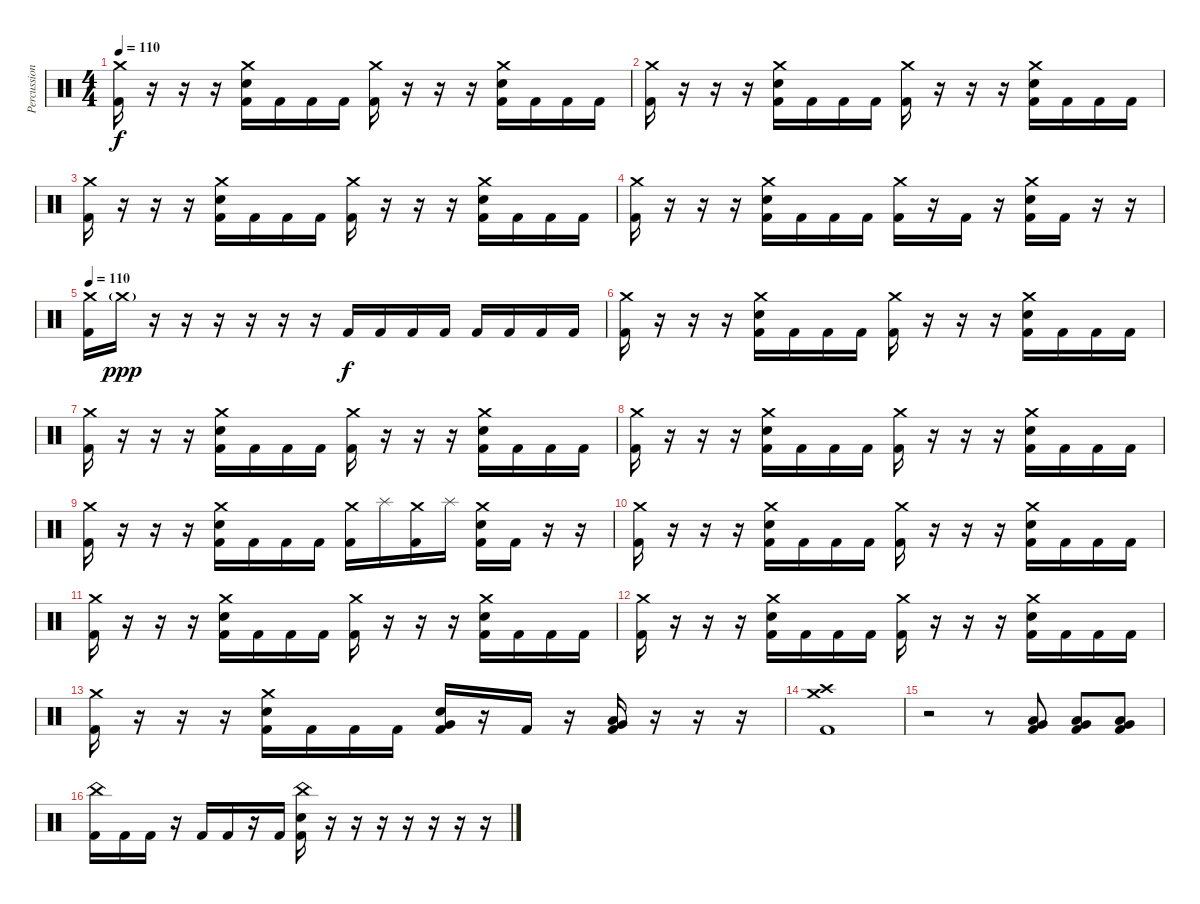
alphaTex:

\track ("Percussion" "Percussion") {instrument percussion}
\staff {score}
\articulation defaults
\ts (4 4)
\tempo 110
\clef neutral
\ks c
("Crash medium (hit)" "Kick (hit) 2").16{dy f} r.16 r.16 r.16 ("Crash medium (hit)" "Electric Snare (hit)" "Kick (hit) 2").16 "Kick (hit) 2".16 "Kick (hit) 2".16 "Kick (hit) 2".16 ("Crash medium (hit)" "Kick (hit) 2").16 r.16 r.16 r.16 ("Crash medium (hit)" "Electric Snare (hit)" "Kick (hit) 2").16 "Kick (hit) 2".16 "Kick (hit) 2".16 "Kick (hit) 2".16 |
("Crash medium (hit)" "Kick (hit) 2").16 r.16 r.16 r.16 ("Crash medium (hit)" "Electric Snare (hit)" "Kick (hit) 2").16 "Kick (hit) 2".16 "Kick (hit) 2".16 "Kick (hit) 2".16 ("Crash medium (hit)" "Kick (hit) 2").16 r.16 r.16 r.16 ("Crash medium (hit)" "Electric Snare (hit)" "Kick (hit) 2").16 "Kick (hit) 2".16 "Kick (hit) 2".16 "Kick (hit) 2".16 |
("Crash medium (hit)" "Kick (hit) 2").16 r.16 r.16 r.16 ("Crash medium (hit)" "Electric Snare (hit)" "Kick (hit) 2").16 "Kick (hit) 2".16 "Kick (hit) 2".16 "Kick (hit) 2".16 ("Crash medium (hit)" "Kick (hit) 2").16 r.16 r.16 r.16 ("Crash medium (hit)" "Electric Snare (hit)" "Kick (hit) 2").16 "Kick (hit) 2".16 "Kick (hit) 2".16 "Kick (hit) 2".16 |
("Crash medium (hit)" "Kick (hit) 2").16 r.16 r.16 r.16 ("Crash medium (hit)" "Electric Snare (hit)" "Kick (hit) 2").16 "Kick (hit) 2".16 "Kick (hit) 2".16 "Kick (hit) 2".16 ("Crash medium (hit)" "Kick (hit) 2").16 r.16 "Kick (hit) 2".16 r.16 ("Crash medium (hit)" "Electric Snare (hit)" "Kick (hit) 2").16 "Kick (hit) 2".16 r.16 r.16 |
\tempo 110
("Crash medium (hit)" "Kick (hit) 2").16 "Crash medium (hit)"{g}.16{dy ppp} r.16 r.16 r.16 r.16 r.16 r.16 "Kick (hit) 2".16{dy f} "Kick (hit) 2".16 "Kick (hit) 2".16 "Kick (hit) 2".16 "Kick (hit) 2".16 "Kick (hit) 2".16 "Kick (hit) 2".16 "Kick (hit) 2".16 |
("Crash medium (hit)" "Kick (hit) 2").16 r.16 r.16 r.16 ("Crash medium (hit)" "Electric Snare (hit)" "Kick (hit) 2").16 "Kick (hit) 2".16 "Kick (hit) 2".16 "Kick (hit) 2".16 ("Crash medium (hit)" "Kick (hit) 2").16 r.16 r.16 r.16 ("Crash medium (hit)" "Electric Snare (hit)" "Kick (hit) 2").16 "Kick (hit) 2".16 "Kick (hit) 2".16 "Kick (hit) 2".16 |
("Crash medium (hit)" "Kick (hit) 2").16 r.16 r.16 r.16 ("Crash medium (hit)" "Electric Snare (hit)" "Kick (hit) 2").16 "Kick (hit) 2".16 "Kick (hit) 2".16 "Kick (hit) 2".16 ("Crash medium (hit)" "Kick (hit) 2").16 r.16 r.16 r.16 ("Crash medium (hit)" "Electric Snare (hit)" "Kick (hit) 2").16 "Kick (hit) 2".16 "Kick (hit) 2".16 "Kick (hit) 2".16 |
("Crash medium (hit)" "Kick (hit) 2").16 r.16 r.16 r.16 ("Crash medium (hit)" "Electric Snare (hit)" "Kick (hit) 2").16 "Kick (hit) 2".16 "Kick (hit) 2".16 "Kick (hit) 2".16 ("Crash medium (hit)" "Kick (hit) 2").16 r.16 r.16 r.16 ("Crash medium (hit)" "Electric Snare (hit)" "Kick (hit) 2").16 "Kick (hit) 2".16 "Kick (hit) 2".16 "Kick (hit) 2".16 |
("Crash medium (hit)" "Kick (hit) 2").16 r.16 r.16 r.16 ("Crash medium (hit)" "Electric Snare (hit)" "Kick (hit) 2").16 "Kick (hit) 2".16 "Kick (hit) 2".16 "Kick (hit) 2".16 ("Crash medium (hit)" "Kick (hit) 2").16 "Splash (hit)".16 ("Crash medium (hit)" "Kick (hit) 2").16 "Splash (hit)".16 ("Crash medium (hit)" "Electric Snare (hit)" "Kick (hit) 2").16 "Kick (hit) 2".16 r.16 r.16 |
("Crash medium (hit)" "Kick (hit) 2").16 r.16 r.16 r.16 ("Crash medium (hit)" "Electric Snare (hit)" "Kick (hit) 2").16 "Kick (hit) 2".16 "Kick (hit) 2".16 "Kick (hit) 2".16 ("Crash medium (hit)" "Kick (hit) 2").16 r.16 r.16 r.16 ("Crash medium (hit)" "Electric Snare (hit)" "Kick (hit) 2").16 "Kick (hit) 2".16 "Kick (hit) 2".16 "Kick (hit) 2".16 |
("Crash medium (hit)" "Kick (hit) 2").16 r.16 r.16 r.16 ("Crash medium (hit)" "Electric Snare (hit)" "Kick (hit) 2").16 "Kick (hit) 2".16 "Kick (hit) 2".16 "Kick (hit) 2".16 ("Crash medium (hit)" "Kick (hit) 2").16 r.16 r.16 r.16 ("Crash medium (hit)" "Electric Snare (hit)" "Kick (hit) 2").16 "Kick (hit) 2".16 "Kick (hit) 2".16 "Kick (hit) 2".16 |
("Crash medium (hit)" "Kick (hit) 2").16 r.16 r.16 r.16 ("Crash medium (hit)" "Electric Snare (hit)" "Kick (hit) 2").16 "Kick (hit) 2".16 "Kick (hit) 2".16 "Kick (hit) 2".16 ("Crash medium (hit)" "Kick (hit) 2").16 r.16 r.16 r.16 ("Crash medium (hit)" "Electric Snare (hit)" "Kick (hit) 2").16 "Kick (hit) 2".16 "Kick (hit) 2".16 "Kick (hit) 2".16 |
("Crash medium (hit)" "Kick (hit) 2").16 r.16 r.16 r.16 ("Crash medium (hit)" "Electric Snare (hit)" "Kick (hit) 2").16 "Kick (hit) 2".16 "Kick (hit) 2".16 "Kick (hit) 2".16 ("Electric Snare (hit)" "Very Low Tom (hit)" "Kick (hit) 2").16 r.16 "Kick (hit) 2".16 r.16 ("Very Low Tom (hit)" "Low Floor Tom (hit)" "Kick (hit) 2").16 r.16 r.16 r.16 |
("Crash medium (hit)" "Crash high (hit)" "Kick (hit) 2").1 |
r.2 r.8 ("Low Tom (hit)" "Very Low Tom (hit)" "Kick (hit) 2").8 ("Low Tom (hit)" "Very Low Tom (hit)" "Kick (hit) 2").8 ("Low Tom (hit)" "Very Low Tom (hit)" "Kick (hit) 2").8 |
("China (hit)" "Kick (hit) 2").16 "Kick (hit) 2".16 "Kick (hit) 2".16 r.16 "Kick (hit) 2".16 "Kick (hit) 2".16 r.16 "Kick (hit) 2".16 ("China (hit)" "Electric Snare (hit)" "Kick (hit) 2").16 r.16 r.16 r.16 r.16 r.16 r.16 r.16
